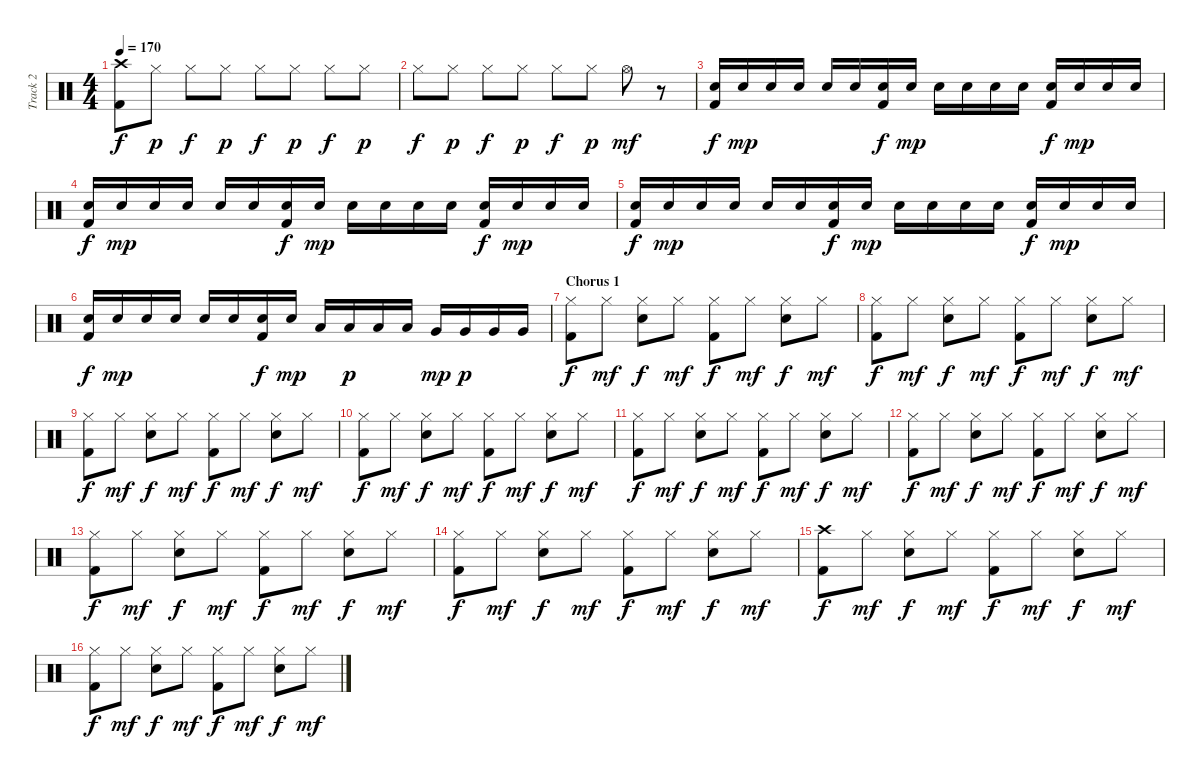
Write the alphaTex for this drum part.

\track ("Track 2" "Track 2") {instrument percussion}
\staff {score}
\articulation defaults
\ts (4 4)
\tempo 170
\clef neutral
\ks c
("Crash high (hit)" "Kick (hit) 2").8{dy f} "Hi-Hat (closed)".8{dy p} "Hi-Hat (closed)".8{dy f} "Hi-Hat (closed)".8{dy p} "Hi-Hat (closed)".8{dy f} "Hi-Hat (closed)".8{dy p} "Hi-Hat (closed)".8{dy f} "Hi-Hat (closed)".8{dy p} |
"Hi-Hat (closed)".8{dy f} "Hi-Hat (closed)".8{dy p} "Hi-Hat (closed)".8{dy f} "Hi-Hat (closed)".8{dy p} "Hi-Hat (closed)".8{dy f} "Hi-Hat (closed)".8{dy p} "Hi-Hat (open)".8{dy mf} r.8 |
("Electric Snare (hit)" "Kick (hit) 2").16{dy f} "Electric Snare (hit)".16{dy mp} "Electric Snare (hit)".16 "Electric Snare (hit)".16 "Electric Snare (hit)".16 "Electric Snare (hit)".16 ("Electric Snare (hit)" "Kick (hit) 2").16{dy f} "Electric Snare (hit)".16{dy mp} "Electric Snare (hit)".16 "Electric Snare (hit)".16 "Electric Snare (hit)".16 "Electric Snare (hit)".16 ("Electric Snare (hit)" "Kick (hit) 2").16{dy f} "Electric Snare (hit)".16{dy mp} "Electric Snare (hit)".16 "Electric Snare (hit)".16 |
("Electric Snare (hit)" "Kick (hit) 2").16{dy f} "Electric Snare (hit)".16{dy mp} "Electric Snare (hit)".16 "Electric Snare (hit)".16 "Electric Snare (hit)".16 "Electric Snare (hit)".16 ("Electric Snare (hit)" "Kick (hit) 2").16{dy f} "Electric Snare (hit)".16{dy mp} "Electric Snare (hit)".16 "Electric Snare (hit)".16 "Electric Snare (hit)".16 "Electric Snare (hit)".16 ("Electric Snare (hit)" "Kick (hit) 2").16{dy f} "Electric Snare (hit)".16{dy mp} "Electric Snare (hit)".16 "Electric Snare (hit)".16 |
("Electric Snare (hit)" "Kick (hit) 2").16{dy f} "Electric Snare (hit)".16{dy mp} "Electric Snare (hit)".16 "Electric Snare (hit)".16 "Electric Snare (hit)".16 "Electric Snare (hit)".16 ("Electric Snare (hit)" "Kick (hit) 2").16{dy f} "Electric Snare (hit)".16{dy mp} "Electric Snare (hit)".16 "Electric Snare (hit)".16 "Electric Snare (hit)".16 "Electric Snare (hit)".16 ("Electric Snare (hit)" "Kick (hit) 2").16{dy f} "Electric Snare (hit)".16{dy mp} "Electric Snare (hit)".16 "Electric Snare (hit)".16 |
("Electric Snare (hit)" "Kick (hit) 2").16{dy f} "Electric Snare (hit)".16{dy mp} "Electric Snare (hit)".16 "Electric Snare (hit)".16 "Electric Snare (hit)".16 "Electric Snare (hit)".16 ("Electric Snare (hit)" "Kick (hit) 2").16{dy f} "Electric Snare (hit)".16{dy mp} "Low Tom (hit)".16 "Low Tom (hit)".16{dy p} "Low Tom (hit)".16 "Low Tom (hit)".16 "Very Low Tom (hit)".16{dy mp} "Very Low Tom (hit)".16{dy p} "Very Low Tom (hit)".16 "Very Low Tom (hit)".16 |
\section ("" "Chorus 1")
("Hi-Hat (closed)" "Kick (hit) 2").8{dy f} "Hi-Hat (closed)".8{dy mf} ("Hi-Hat (closed)" "Electric Snare (hit)").8{dy f} "Hi-Hat (closed)".8{dy mf} ("Hi-Hat (closed)" "Kick (hit) 2").8{dy f} "Hi-Hat (closed)".8{dy mf} ("Hi-Hat (closed)" "Electric Snare (hit)").8{dy f} "Hi-Hat (closed)".8{dy mf} |
("Hi-Hat (closed)" "Kick (hit) 2").8{dy f} "Hi-Hat (closed)".8{dy mf} ("Hi-Hat (closed)" "Electric Snare (hit)").8{dy f} "Hi-Hat (closed)".8{dy mf} ("Hi-Hat (closed)" "Kick (hit) 2").8{dy f} "Hi-Hat (closed)".8{dy mf} ("Hi-Hat (closed)" "Electric Snare (hit)").8{dy f} "Hi-Hat (closed)".8{dy mf} |
("Hi-Hat (closed)" "Kick (hit) 2").8{dy f} "Hi-Hat (closed)".8{dy mf} ("Hi-Hat (closed)" "Electric Snare (hit)").8{dy f} "Hi-Hat (closed)".8{dy mf} ("Hi-Hat (closed)" "Kick (hit) 2").8{dy f} "Hi-Hat (closed)".8{dy mf} ("Hi-Hat (closed)" "Electric Snare (hit)").8{dy f} "Hi-Hat (closed)".8{dy mf} |
("Hi-Hat (closed)" "Kick (hit) 2").8{dy f} "Hi-Hat (closed)".8{dy mf} ("Hi-Hat (closed)" "Electric Snare (hit)").8{dy f} "Hi-Hat (closed)".8{dy mf} ("Hi-Hat (closed)" "Kick (hit) 2").8{dy f} "Hi-Hat (closed)".8{dy mf} ("Hi-Hat (closed)" "Electric Snare (hit)").8{dy f} "Hi-Hat (closed)".8{dy mf} |
("Hi-Hat (closed)" "Kick (hit) 2").8{dy f} "Hi-Hat (closed)".8{dy mf} ("Hi-Hat (closed)" "Electric Snare (hit)").8{dy f} "Hi-Hat (closed)".8{dy mf} ("Hi-Hat (closed)" "Kick (hit) 2").8{dy f} "Hi-Hat (closed)".8{dy mf} ("Hi-Hat (closed)" "Electric Snare (hit)").8{dy f} "Hi-Hat (closed)".8{dy mf} |
("Hi-Hat (closed)" "Kick (hit) 2").8{dy f} "Hi-Hat (closed)".8{dy mf} ("Hi-Hat (closed)" "Electric Snare (hit)").8{dy f} "Hi-Hat (closed)".8{dy mf} ("Hi-Hat (closed)" "Kick (hit) 2").8{dy f} "Hi-Hat (closed)".8{dy mf} ("Hi-Hat (closed)" "Electric Snare (hit)").8{dy f} "Hi-Hat (closed)".8{dy mf} |
("Hi-Hat (closed)" "Kick (hit) 2").8{dy f} "Hi-Hat (closed)".8{dy mf} ("Hi-Hat (closed)" "Electric Snare (hit)").8{dy f} "Hi-Hat (closed)".8{dy mf} ("Hi-Hat (closed)" "Kick (hit) 2").8{dy f} "Hi-Hat (closed)".8{dy mf} ("Hi-Hat (closed)" "Electric Snare (hit)").8{dy f} "Hi-Hat (closed)".8{dy mf} |
("Hi-Hat (closed)" "Kick (hit) 2").8{dy f} "Hi-Hat (closed)".8{dy mf} ("Hi-Hat (closed)" "Electric Snare (hit)").8{dy f} "Hi-Hat (closed)".8{dy mf} ("Hi-Hat (closed)" "Kick (hit) 2").8{dy f} "Hi-Hat (closed)".8{dy mf} ("Hi-Hat (closed)" "Electric Snare (hit)").8{dy f} "Hi-Hat (closed)".8{dy mf} |
("Crash high (hit)" "Kick (hit) 2").8{dy f} "Hi-Hat (closed)".8{dy mf} ("Hi-Hat (closed)" "Electric Snare (hit)").8{dy f} "Hi-Hat (closed)".8{dy mf} ("Hi-Hat (closed)" "Kick (hit) 2").8{dy f} "Hi-Hat (closed)".8{dy mf} ("Hi-Hat (closed)" "Electric Snare (hit)").8{dy f} "Hi-Hat (closed)".8{dy mf} |
("Hi-Hat (closed)" "Kick (hit) 2").8{dy f} "Hi-Hat (closed)".8{dy mf} ("Hi-Hat (closed)" "Electric Snare (hit)").8{dy f} "Hi-Hat (closed)".8{dy mf} ("Hi-Hat (closed)" "Kick (hit) 2").8{dy f} "Hi-Hat (closed)".8{dy mf} ("Hi-Hat (closed)" "Electric Snare (hit)").8{dy f} "Hi-Hat (closed)".8{dy mf}
